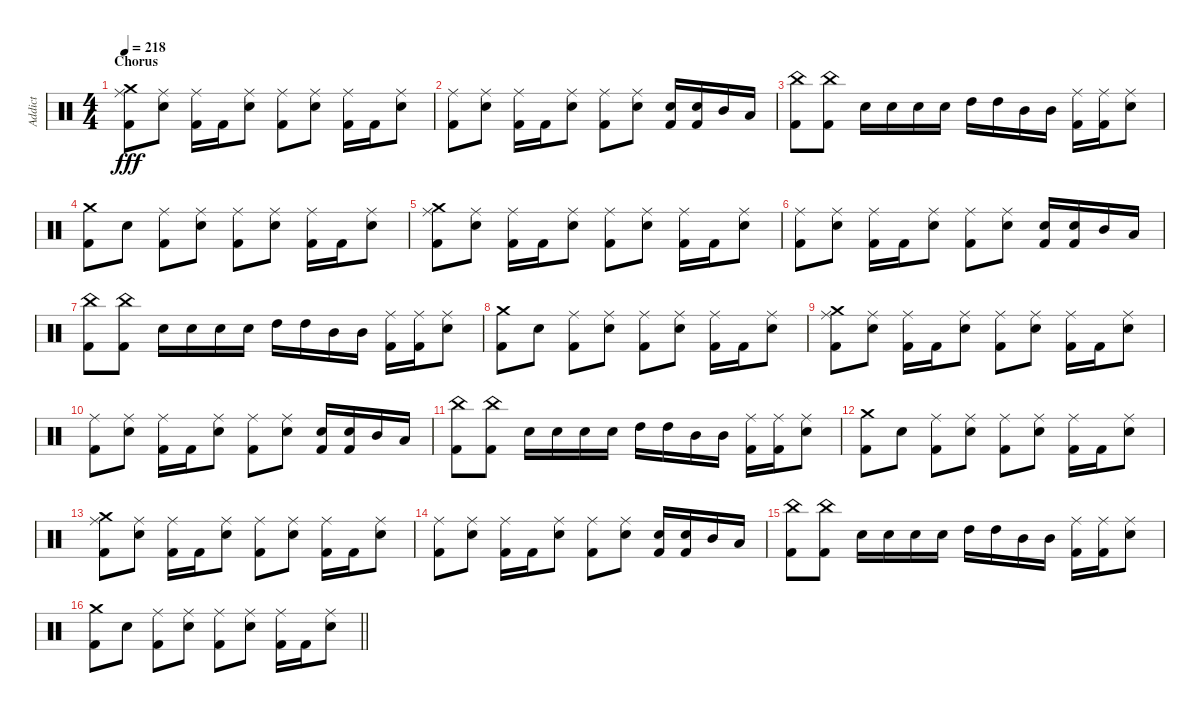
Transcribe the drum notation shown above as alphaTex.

\track ("Addict" "Addict") {instrument percussion}
\staff {score}
\articulation defaults
\ts (4 4)
\section ("" "Chorus")
\tempo 218
\clef neutral
\ks c
("Kick (hit) 2" "Ride (middle)" "Crash medium (hit)").8{dy fff} ("Snare (hit) 2" "Ride (middle)").8 ("Kick (hit) 2" "Ride (middle)").16 "Kick (hit) 2".16 ("Snare (hit) 2" "Ride (middle)").8 ("Kick (hit) 2" "Ride (middle)").8 ("Snare (hit) 2" "Ride (middle)").8 ("Kick (hit) 2" "Ride (middle)").16 "Kick (hit) 2".16 ("Snare (hit) 2" "Ride (middle)").8 |
("Kick (hit) 2" "Ride (middle)").8 ("Snare (hit) 2" "Ride (middle)").8 ("Kick (hit) 2" "Ride (middle)").16 "Kick (hit) 2".16 ("Snare (hit) 2" "Ride (middle)").8 ("Kick (hit) 2" "Ride (middle)").8 ("Snare (hit) 2" "Ride (middle)").8 ("Kick (hit) 2" "Snare (hit) 2").16 ("Kick (hit) 2" "Snare (hit) 2").16 "Mid Tom (hit)".16 "Low Tom (hit)".16 |
("Kick (hit) 2" "China (hit)").8 ("Kick (hit) 2" "China (hit)").8 "Snare (hit) 2".16 "Snare (hit) 2".16 "Snare (hit) 2".16 "Snare (hit) 2".16 "High Tom (hit)".16 "High Tom (hit)".16 "Mid Tom (hit)".16 "Mid Tom (hit)".16 ("Kick (hit) 2" "Ride (middle)").16 ("Kick (hit) 2" "Ride (middle)").16 ("Snare (hit) 2" "Ride (middle)").8 |
("Kick (hit) 2" "Crash medium (hit)").8 "Snare (hit) 2".8 ("Kick (hit) 2" "Ride (middle)").8 ("Snare (hit) 2" "Ride (middle)").8 ("Kick (hit) 2" "Ride (middle)").8 ("Snare (hit) 2" "Ride (middle)").8 ("Kick (hit) 2" "Ride (middle)").16 "Kick (hit) 2".16 ("Snare (hit) 2" "Ride (middle)").8 |
("Kick (hit) 2" "Ride (middle)" "Crash medium (hit)").8 ("Snare (hit) 2" "Ride (middle)").8 ("Kick (hit) 2" "Ride (middle)").16 "Kick (hit) 2".16 ("Snare (hit) 2" "Ride (middle)").8 ("Kick (hit) 2" "Ride (middle)").8 ("Snare (hit) 2" "Ride (middle)").8 ("Kick (hit) 2" "Ride (middle)").16 "Kick (hit) 2".16 ("Snare (hit) 2" "Ride (middle)").8 |
("Kick (hit) 2" "Ride (middle)").8 ("Snare (hit) 2" "Ride (middle)").8 ("Kick (hit) 2" "Ride (middle)").16 "Kick (hit) 2".16 ("Snare (hit) 2" "Ride (middle)").8 ("Kick (hit) 2" "Ride (middle)").8 ("Snare (hit) 2" "Ride (middle)").8 ("Kick (hit) 2" "Snare (hit) 2").16 ("Kick (hit) 2" "Snare (hit) 2").16 "Mid Tom (hit)".16 "Low Tom (hit)".16 |
("Kick (hit) 2" "China (hit)").8 ("Kick (hit) 2" "China (hit)").8 "Snare (hit) 2".16 "Snare (hit) 2".16 "Snare (hit) 2".16 "Snare (hit) 2".16 "High Tom (hit)".16 "High Tom (hit)".16 "Mid Tom (hit)".16 "Mid Tom (hit)".16 ("Kick (hit) 2" "Ride (middle)").16 ("Kick (hit) 2" "Ride (middle)").16 ("Snare (hit) 2" "Ride (middle)").8 |
("Kick (hit) 2" "Crash medium (hit)").8 "Snare (hit) 2".8 ("Kick (hit) 2" "Ride (middle)").8 ("Snare (hit) 2" "Ride (middle)").8 ("Kick (hit) 2" "Ride (middle)").8 ("Snare (hit) 2" "Ride (middle)").8 ("Kick (hit) 2" "Ride (middle)").16 "Kick (hit) 2".16 ("Snare (hit) 2" "Ride (middle)").8 |
("Kick (hit) 2" "Ride (middle)" "Crash medium (hit)").8 ("Snare (hit) 2" "Ride (middle)").8 ("Kick (hit) 2" "Ride (middle)").16 "Kick (hit) 2".16 ("Snare (hit) 2" "Ride (middle)").8 ("Kick (hit) 2" "Ride (middle)").8 ("Snare (hit) 2" "Ride (middle)").8 ("Kick (hit) 2" "Ride (middle)").16 "Kick (hit) 2".16 ("Snare (hit) 2" "Ride (middle)").8 |
("Kick (hit) 2" "Ride (middle)").8 ("Snare (hit) 2" "Ride (middle)").8 ("Kick (hit) 2" "Ride (middle)").16 "Kick (hit) 2".16 ("Snare (hit) 2" "Ride (middle)").8 ("Kick (hit) 2" "Ride (middle)").8 ("Snare (hit) 2" "Ride (middle)").8 ("Kick (hit) 2" "Snare (hit) 2").16 ("Kick (hit) 2" "Snare (hit) 2").16 "Mid Tom (hit)".16 "Low Tom (hit)".16 |
("Kick (hit) 2" "China (hit)").8 ("Kick (hit) 2" "China (hit)").8 "Snare (hit) 2".16 "Snare (hit) 2".16 "Snare (hit) 2".16 "Snare (hit) 2".16 "High Tom (hit)".16 "High Tom (hit)".16 "Mid Tom (hit)".16 "Mid Tom (hit)".16 ("Kick (hit) 2" "Ride (middle)").16 ("Kick (hit) 2" "Ride (middle)").16 ("Snare (hit) 2" "Ride (middle)").8 |
("Kick (hit) 2" "Crash medium (hit)").8 "Snare (hit) 2".8 ("Kick (hit) 2" "Ride (middle)").8 ("Snare (hit) 2" "Ride (middle)").8 ("Kick (hit) 2" "Ride (middle)").8 ("Snare (hit) 2" "Ride (middle)").8 ("Kick (hit) 2" "Ride (middle)").16 "Kick (hit) 2".16 ("Snare (hit) 2" "Ride (middle)").8 |
("Kick (hit) 2" "Ride (middle)" "Crash medium (hit)").8 ("Snare (hit) 2" "Ride (middle)").8 ("Kick (hit) 2" "Ride (middle)").16 "Kick (hit) 2".16 ("Snare (hit) 2" "Ride (middle)").8 ("Kick (hit) 2" "Ride (middle)").8 ("Snare (hit) 2" "Ride (middle)").8 ("Kick (hit) 2" "Ride (middle)").16 "Kick (hit) 2".16 ("Snare (hit) 2" "Ride (middle)").8 |
("Kick (hit) 2" "Ride (middle)").8 ("Snare (hit) 2" "Ride (middle)").8 ("Kick (hit) 2" "Ride (middle)").16 "Kick (hit) 2".16 ("Snare (hit) 2" "Ride (middle)").8 ("Kick (hit) 2" "Ride (middle)").8 ("Snare (hit) 2" "Ride (middle)").8 ("Kick (hit) 2" "Snare (hit) 2").16 ("Kick (hit) 2" "Snare (hit) 2").16 "Mid Tom (hit)".16 "Low Tom (hit)".16 |
("Kick (hit) 2" "China (hit)").8 ("Kick (hit) 2" "China (hit)").8 "Snare (hit) 2".16 "Snare (hit) 2".16 "Snare (hit) 2".16 "Snare (hit) 2".16 "High Tom (hit)".16 "High Tom (hit)".16 "Mid Tom (hit)".16 "Mid Tom (hit)".16 ("Kick (hit) 2" "Ride (middle)").16 ("Kick (hit) 2" "Ride (middle)").16 ("Snare (hit) 2" "Ride (middle)").8 |
\barLineRight lightlight
("Kick (hit) 2" "Crash medium (hit)").8 "Snare (hit) 2".8 ("Kick (hit) 2" "Ride (middle)").8 ("Snare (hit) 2" "Ride (middle)").8 ("Kick (hit) 2" "Ride (middle)").8 ("Snare (hit) 2" "Ride (middle)").8 ("Kick (hit) 2" "Ride (middle)").16 "Kick (hit) 2".16 ("Snare (hit) 2" "Ride (middle)").8
